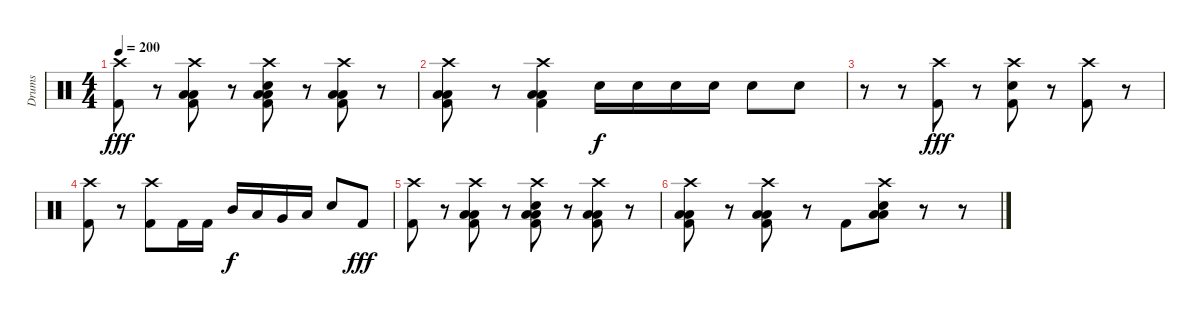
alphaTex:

\track ("Drums" "Drums") {instrument percussion}
\staff {score}
\articulation defaults
\ts (4 4)
\tempo 200
\clef neutral
\ks c
("Crash high (hit)" "Kick (hit) 2").8{dy fff} r.8 ("Crash high (hit)" "Low Floor Tom (hit)" "Low Floor Tom (hit)" "Kick (hit) 2").8 r.8 ("Crash high (hit)" "Low Floor Tom (hit)" "Low Floor Tom (hit)" "Electric Snare (hit)" "Kick (hit) 2").8 r.8 ("Crash high (hit)" "Low Floor Tom (hit)" "Low Floor Tom (hit)" "Kick (hit) 2").8 r.8 |
("Crash high (hit)" "Low Floor Tom (hit)" "Low Floor Tom (hit)" "Kick (hit) 2").8 r.8 ("Crash high (hit)" "Low Floor Tom (hit)" "Low Floor Tom (hit)" "Kick (hit) 2").4 "Electric Snare (hit)".16{dy f} "Electric Snare (hit)".16 "Electric Snare (hit)".16 "Electric Snare (hit)".16 "Electric Snare (hit)".8 "Electric Snare (hit)".8 |
r.8 r.8 ("Crash high (hit)" "Kick (hit) 2").8{dy fff} r.8 ("Crash high (hit)" "Electric Snare (hit)" "Kick (hit) 2").8 r.8 ("Crash high (hit)" "Kick (hit) 2").8 r.8 |
("Crash high (hit)" "Kick (hit) 2").8 r.8 ("Crash high (hit)" "Kick (hit) 2").8 "Kick (hit) 2".16 "Kick (hit) 2".16 "Mid Tom (hit)".16{dy f} "Low Tom (hit)".16 "Very Low Tom (hit)".16 "Low Floor Tom (hit)".16 "Electric Snare (hit)".8 "Kick (hit) 2".8{dy fff} |
("Crash high (hit)" "Kick (hit) 2").8 r.8 ("Crash high (hit)" "Low Floor Tom (hit)" "Low Floor Tom (hit)" "Kick (hit) 2").8 r.8 ("Crash high (hit)" "Low Floor Tom (hit)" "Low Floor Tom (hit)" "Electric Snare (hit)" "Kick (hit) 2").8 r.8 ("Crash high (hit)" "Low Floor Tom (hit)" "Low Floor Tom (hit)" "Kick (hit) 2").8 r.8 |
("Crash high (hit)" "Low Floor Tom (hit)" "Low Floor Tom (hit)" "Kick (hit) 2").8 r.8 ("Crash high (hit)" "Low Floor Tom (hit)" "Low Floor Tom (hit)" "Kick (hit) 2").8 r.8 "Kick (hit) 2".8 ("Crash high (hit)" "Low Floor Tom (hit)" "Low Floor Tom (hit)" "Electric Snare (hit)").8 r.8 r.8
